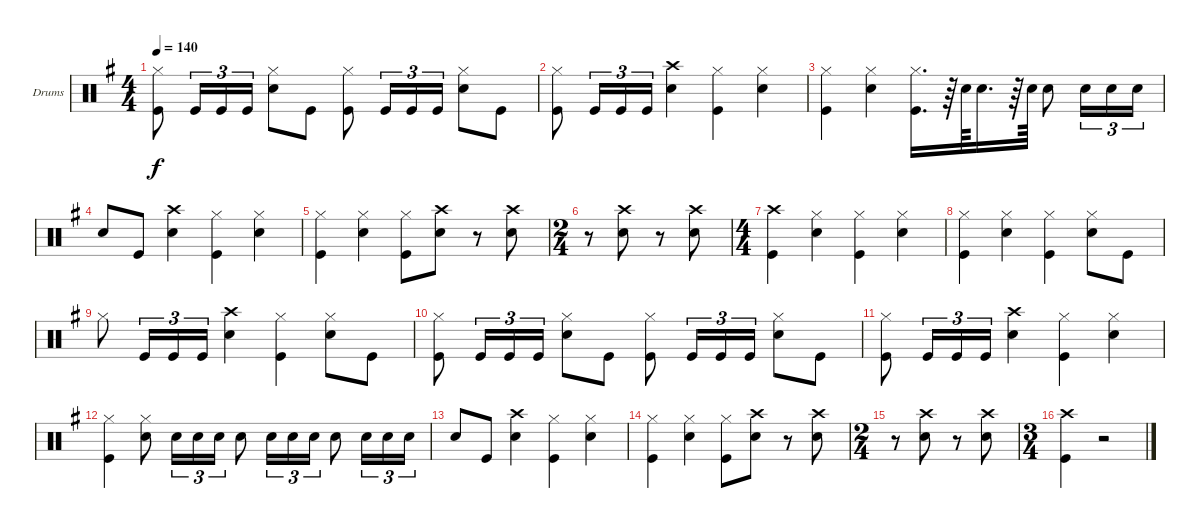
\bracketExtendMode groupsimilarinstruments
\firstSystemTrackNameOrientation horizontal
\otherSystemsTrackNameOrientation horizontal
\track ("Drumkit" "Drums") {instrument percussion}
\staff {score}
\articulation defaults
\ts (4 4)
\tempo 140
\clef neutral
\scale
1.04288
\ks g
("Kick (hit)" "Hi-Hat (closed)").8{dy f} "Kick (hit)".16{tu (3 2)} "Kick (hit)".16{tu (3 2)} "Kick (hit)".16{tu (3 2)} ("Snare (hit) 2" "Hi-Hat (closed)").8 "Kick (hit)".8 ("Kick (hit)" "Hi-Hat (closed)").8 "Kick (hit)".16{tu (3 2)} "Kick (hit)".16{tu (3 2)} "Kick (hit)".16{tu (3 2)} ("Snare (hit) 2" "Hi-Hat (closed)").8 "Kick (hit)".8 |
\scale
0.957125 ("Hi-Hat (closed)" "Kick (hit)").8 "Kick (hit)".16{tu (3 2)} "Kick (hit)".16{tu (3 2)} "Kick (hit)".16{tu (3 2)} ("Snare (hit) 2" "Crash high (hit)").4 ("Kick (hit)" "Hi-Hat (closed)").4 ("Hi-Hat (closed)" "Snare (hit) 2").4 |
\scale
1.04288 ("Kick (hit)" "Hi-Hat (closed)").4 ("Snare (hit) 2" "Hi-Hat (closed)").4 ("Hi-Hat (closed)" "Kick (hit)").16{d} r.64 "Snare (hit) 2".64 "Snare (hit) 2".16{d} r.64 "Snare (hit) 2".64 "Snare (hit) 2".8 "Snare (hit) 2".16{tu (3 2)} "Snare (hit) 2".16{tu (3 2)} "Snare (hit) 2".16{tu (3 2)} |
\scale
0.957125 "Snare (hit) 2".8 "Kick (hit)".8 ("Crash high (hit)" "Snare (hit) 2").4 ("Kick (hit)" "Hi-Hat (closed)").4 ("Snare (hit) 2" "Hi-Hat (closed)").4 |
\scale
1.04288 ("Kick (hit)" "Hi-Hat (closed)").4 ("Snare (hit) 2" "Hi-Hat (closed)").4 ("Kick (hit)" "Hi-Hat (closed)").8 ("Crash high (hit)" "Snare (hit) 2").8 r.8 ("Snare (hit) 2" "Crash high (hit)").8 |
\ts (2 4)
\scale
0.957125 r.8 ("Snare (hit) 2" "Crash high (hit)").8 r.8 ("Snare (hit) 2" "Crash high (hit)").8 |
\ts (4 4)
\scale
1.07314 ("Kick (hit)" "Crash high (hit)").4 ("Hi-Hat (closed)" "Snare (hit) 2").4 ("Hi-Hat (closed)" "Kick (hit)").4 ("Snare (hit) 2" "Hi-Hat (closed)").4 |
\scale
0.92686 ("Hi-Hat (closed)" "Kick (hit)").4 ("Hi-Hat (closed)" "Snare (hit) 2").4 ("Hi-Hat (closed)" "Kick (hit)").4 ("Hi-Hat (closed)" "Snare (hit) 2").8 "Kick (hit)".8 |
\scale
1.04288 "Hi-Hat (closed)".8 "Kick (hit)".16{tu (3 2)} "Kick (hit)".16{tu (3 2)} "Kick (hit)".16{tu (3 2)} ("Snare (hit) 2" "Crash high (hit)").4 ("Hi-Hat (closed)" "Kick (hit)").4 ("Snare (hit) 2" "Hi-Hat (closed)").8 "Kick (hit)".8 |
\scale
0.957125 ("Kick (hit)" "Hi-Hat (closed)").8 "Kick (hit)".16{tu (3 2)} "Kick (hit)".16{tu (3 2)} "Kick (hit)".16{tu (3 2)} ("Snare (hit) 2" "Hi-Hat (closed)").8 "Kick (hit)".8 ("Kick (hit)" "Hi-Hat (closed)").8 "Kick (hit)".16{tu (3 2)} "Kick (hit)".16{tu (3 2)} "Kick (hit)".16{tu (3 2)} ("Snare (hit) 2" "Hi-Hat (closed)").8 "Kick (hit)".8 |
\scale
1.04288 ("Hi-Hat (closed)" "Kick (hit)").8 "Kick (hit)".16{tu (3 2)} "Kick (hit)".16{tu (3 2)} "Kick (hit)".16{tu (3 2)} ("Snare (hit) 2" "Crash high (hit)").4 ("Kick (hit)" "Hi-Hat (closed)").4 ("Hi-Hat (closed)" "Snare (hit) 2").4 |
\scale
0.957125 ("Kick (hit)" "Hi-Hat (closed)").4 ("Snare (hit) 2" "Hi-Hat (closed)").8 "Snare (hit) 2".16{tu (3 2)} "Snare (hit) 2".16{tu (3 2)} "Snare (hit) 2".16{tu (3 2)} "Snare (hit) 2".8 "Snare (hit) 2".16{tu (3 2)} "Snare (hit) 2".16{tu (3 2)} "Snare (hit) 2".16{tu (3 2)} "Snare (hit) 2".8 "Snare (hit) 2".16{tu (3 2)} "Snare (hit) 2".16{tu (3 2)} "Snare (hit) 2".16{tu (3 2)} |
\scale
1.04288 "Snare (hit) 2".8 "Kick (hit)".8 ("Crash high (hit)" "Snare (hit) 2").4 ("Kick (hit)" "Hi-Hat (closed)").4 ("Snare (hit) 2" "Hi-Hat (closed)").4 |
\scale
0.957125 ("Kick (hit)" "Hi-Hat (closed)").4 ("Snare (hit) 2" "Hi-Hat (closed)").4 ("Kick (hit)" "Hi-Hat (closed)").8 ("Crash high (hit)" "Snare (hit) 2").8 r.8 ("Snare (hit) 2" "Crash high (hit)").8 |
\ts (2 4)
\scale
1.07314 r.8 ("Snare (hit) 2" "Crash high (hit)").8 r.8 ("Snare (hit) 2" "Crash high (hit)").8 |
\ts (3 4)
\scale
0.92686 ("Kick (hit)" "Crash high (hit)").4 r.2
